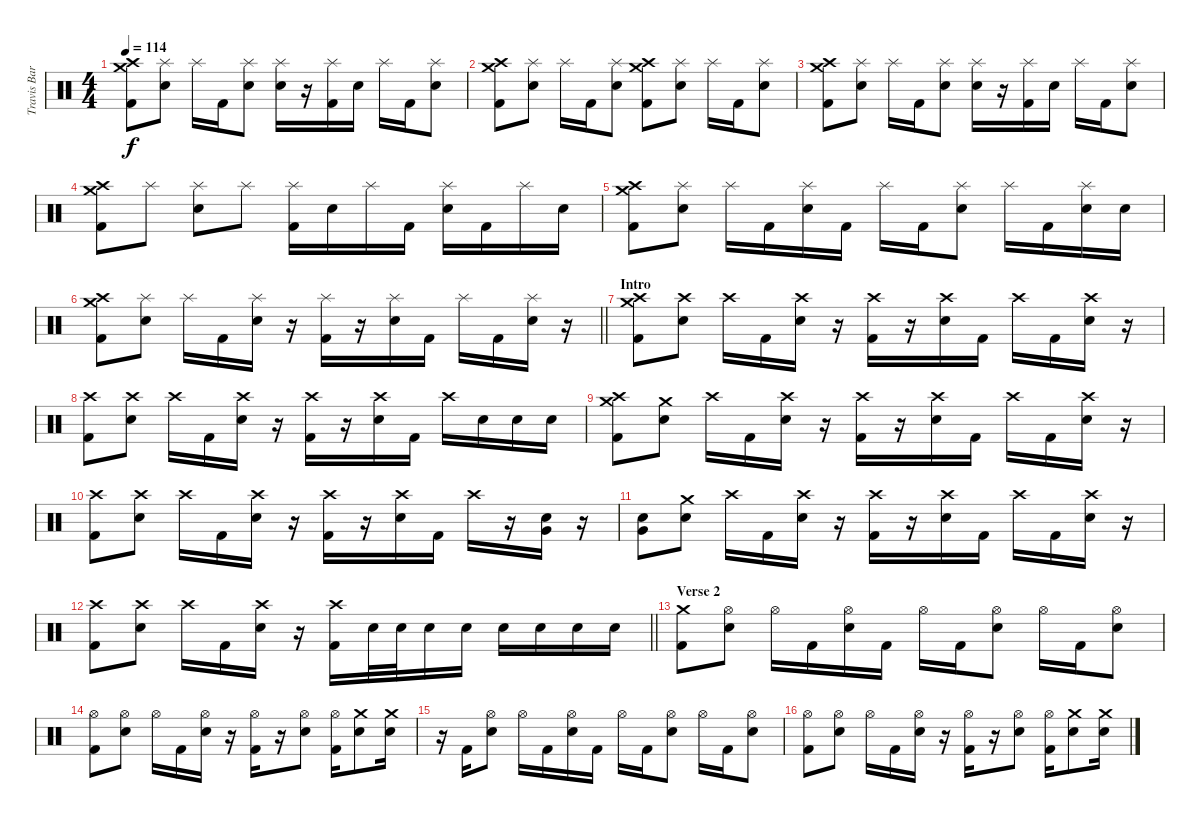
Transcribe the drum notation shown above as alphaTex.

\track ("Travis Barker" "Travis Bar") {instrument percussion}
\staff {score}
\articulation defaults
\ts (4 4)
\tempo 114
\clef neutral
\ks c
("Crash medium (hit)" "Crash high (hit)" "Kick (hit) 2").8{dy f} ("Splash (hit)" "Electric Snare (hit)").8 "Splash (hit)".16 "Kick (hit) 2".16 ("Splash (hit)" "Electric Snare (hit)").8 ("Splash (hit)" "Electric Snare (hit)").16 r.16 ("Splash (hit)" "Kick (hit) 2").16 "Electric Snare (hit)".16 "Splash (hit)".16 "Kick (hit) 2".16 ("Splash (hit)" "Electric Snare (hit)").8 |
("Crash medium (hit)" "Crash high (hit)" "Kick (hit) 2").8 ("Splash (hit)" "Electric Snare (hit)").8 "Splash (hit)".16 "Kick (hit) 2".16 ("Splash (hit)" "Electric Snare (hit)").8 ("Crash medium (hit)" "Crash high (hit)" "Kick (hit) 2").8 ("Splash (hit)" "Electric Snare (hit)").8 "Splash (hit)".16 "Kick (hit) 2".16 ("Splash (hit)" "Electric Snare (hit)").8 |
("Crash medium (hit)" "Crash high (hit)" "Kick (hit) 2").8 ("Splash (hit)" "Electric Snare (hit)").8 "Splash (hit)".16 "Kick (hit) 2".16 ("Splash (hit)" "Electric Snare (hit)").8 ("Splash (hit)" "Electric Snare (hit)").16 r.16 ("Splash (hit)" "Kick (hit) 2").16 "Electric Snare (hit)".16 "Splash (hit)".16 "Kick (hit) 2".16 ("Splash (hit)" "Electric Snare (hit)").8 |
("Crash medium (hit)" "Crash high (hit)" "Kick (hit) 2").8 "Splash (hit)".8 ("Splash (hit)" "Electric Snare (hit)").8 "Splash (hit)".8 ("Splash (hit)" "Kick (hit) 2").16 "Electric Snare (hit)".16 "Splash (hit)".16 "Kick (hit) 2".16 ("Splash (hit)" "Electric Snare (hit)").16 "Kick (hit) 2".16 "Splash (hit)".16 "Electric Snare (hit)".16 |
("Crash medium (hit)" "Crash high (hit)" "Kick (hit) 2").8 ("Splash (hit)" "Electric Snare (hit)").8 "Splash (hit)".16 "Kick (hit) 2".16 ("Splash (hit)" "Electric Snare (hit)").16 "Kick (hit) 2".16 "Splash (hit)".16 "Kick (hit) 2".16 ("Splash (hit)" "Electric Snare (hit)").8 "Splash (hit)".16 "Kick (hit) 2".16 ("Splash (hit)" "Electric Snare (hit)").16 "Electric Snare (hit)".16 |
\barLineRight lightlight
("Crash medium (hit)" "Crash high (hit)" "Kick (hit) 2").8 ("Splash (hit)" "Electric Snare (hit)").8 "Splash (hit)".16 "Kick (hit) 2".16 ("Splash (hit)" "Electric Snare (hit)").16 r.16 ("Splash (hit)" "Kick (hit) 2").16 r.16 ("Splash (hit)" "Electric Snare (hit)").16 "Kick (hit) 2".16 "Splash (hit)".16 "Kick (hit) 2".16 ("Splash (hit)" "Electric Snare (hit)").16 r.16 |
\section ("" "Intro")
("Crash medium (hit)" "Crash high (hit)" "Kick (hit) 2").8 ("Crash high (hit)" "Electric Snare (hit)").8 "Crash high (hit)".16 "Kick (hit) 2".16 ("Crash high (hit)" "Electric Snare (hit)").16 r.16 ("Crash high (hit)" "Kick (hit) 2").16 r.16 ("Crash high (hit)" "Electric Snare (hit)").16 "Kick (hit) 2".16 "Crash high (hit)".16 "Kick (hit) 2".16 ("Crash high (hit)" "Electric Snare (hit)").16 r.16 |
("Crash high (hit)" "Kick (hit) 2").8 ("Crash high (hit)" "Electric Snare (hit)").8 "Crash high (hit)".16 "Kick (hit) 2".16 ("Crash high (hit)" "Electric Snare (hit)").16 r.16 ("Crash high (hit)" "Kick (hit) 2").16 r.16 ("Crash high (hit)" "Electric Snare (hit)").16 "Kick (hit) 2".16 "Crash high (hit)".16 "Electric Snare (hit)".16 "Electric Snare (hit)".16 "Electric Snare (hit)".16 |
("Crash medium (hit)" "Crash high (hit)" "Kick (hit) 2").8 ("Crash medium (hit)" "Electric Snare (hit)").8 "Crash high (hit)".16 "Kick (hit) 2".16 ("Crash high (hit)" "Electric Snare (hit)").16 r.16 ("Crash high (hit)" "Kick (hit) 2").16 r.16 ("Crash high (hit)" "Electric Snare (hit)").16 "Kick (hit) 2".16 "Crash high (hit)".16 "Kick (hit) 2".16 ("Crash high (hit)" "Electric Snare (hit)").16 r.16 |
("Crash high (hit)" "Kick (hit) 2").8 ("Crash high (hit)" "Electric Snare (hit)").8 "Crash high (hit)".16 "Kick (hit) 2".16 ("Crash high (hit)" "Electric Snare (hit)").16 r.16 ("Crash high (hit)" "Kick (hit) 2").16 r.16 ("Crash high (hit)" "Electric Snare (hit)").16 "Kick (hit) 2".16 "Crash high (hit)".16 r.16 ("Electric Snare (hit)" "Very Low Tom (hit)").16 r.16 |
("Electric Snare (hit)" "Very Low Tom (hit)").8 ("Crash medium (hit)" "Electric Snare (hit)").8 "Crash high (hit)".16 "Kick (hit) 2".16 ("Crash high (hit)" "Electric Snare (hit)").16 r.16 ("Crash high (hit)" "Kick (hit) 2").16 r.16 ("Crash high (hit)" "Electric Snare (hit)").16 "Kick (hit) 2".16 "Crash high (hit)".16 "Kick (hit) 2".16 ("Crash high (hit)" "Electric Snare (hit)").16 r.16 |
\barLineRight lightlight
("Crash high (hit)" "Kick (hit) 2").8 ("Crash high (hit)" "Electric Snare (hit)").8 "Crash high (hit)".16 "Kick (hit) 2".16 ("Crash high (hit)" "Electric Snare (hit)").16 r.16 ("Crash high (hit)" "Kick (hit) 2").16 "Electric Snare (hit)".32 "Electric Snare (hit)".32 "Electric Snare (hit)".16 "Electric Snare (hit)".16 "Electric Snare (hit)".16 "Electric Snare (hit)".16 "Electric Snare (hit)".16 "Electric Snare (hit)".16 |
\section ("" "Verse 2")
("Crash medium (hit)" "Kick (hit) 2").8 ("Hi-Hat (open)" "Electric Snare (hit)").8 "Hi-Hat (open)".16 "Kick (hit) 2".16 ("Hi-Hat (open)" "Electric Snare (hit)").16 "Kick (hit) 2".16 "Hi-Hat (open)".16 "Kick (hit) 2".16 ("Hi-Hat (open)" "Electric Snare (hit)").8 "Hi-Hat (open)".16 "Kick (hit) 2".16 ("Hi-Hat (open)" "Electric Snare (hit)").8 |
("Hi-Hat (open)" "Kick (hit) 2").8 ("Hi-Hat (open)" "Electric Snare (hit)").8 "Hi-Hat (open)".16 "Kick (hit) 2".16 ("Hi-Hat (open)" "Electric Snare (hit)").16 r.16 ("Hi-Hat (open)" "Kick (hit) 2").16 r.16 ("Hi-Hat (open)" "Electric Snare (hit)").8 ("Hi-Hat (open)" "Kick (hit) 2").16 ("Crash medium (hit)" "Electric Snare (hit)").8 ("Crash medium (hit)" "Electric Snare (hit)").16 |
r.16 "Kick (hit) 2".16 ("Hi-Hat (open)" "Electric Snare (hit)").8 "Hi-Hat (open)".16 "Kick (hit) 2".16 ("Hi-Hat (open)" "Electric Snare (hit)").16 "Kick (hit) 2".16 "Hi-Hat (open)".16 "Kick (hit) 2".16 ("Hi-Hat (open)" "Electric Snare (hit)").8 "Hi-Hat (open)".16 "Kick (hit) 2".16 ("Hi-Hat (open)" "Electric Snare (hit)").8 |
("Hi-Hat (open)" "Kick (hit) 2").8 ("Hi-Hat (open)" "Electric Snare (hit)").8 "Hi-Hat (open)".16 "Kick (hit) 2".16 ("Hi-Hat (open)" "Electric Snare (hit)").16 r.16 ("Hi-Hat (open)" "Kick (hit) 2").16 r.16 ("Hi-Hat (open)" "Electric Snare (hit)").8 ("Hi-Hat (open)" "Kick (hit) 2").16 ("Crash medium (hit)" "Electric Snare (hit)").8 ("Crash medium (hit)" "Electric Snare (hit)").16
